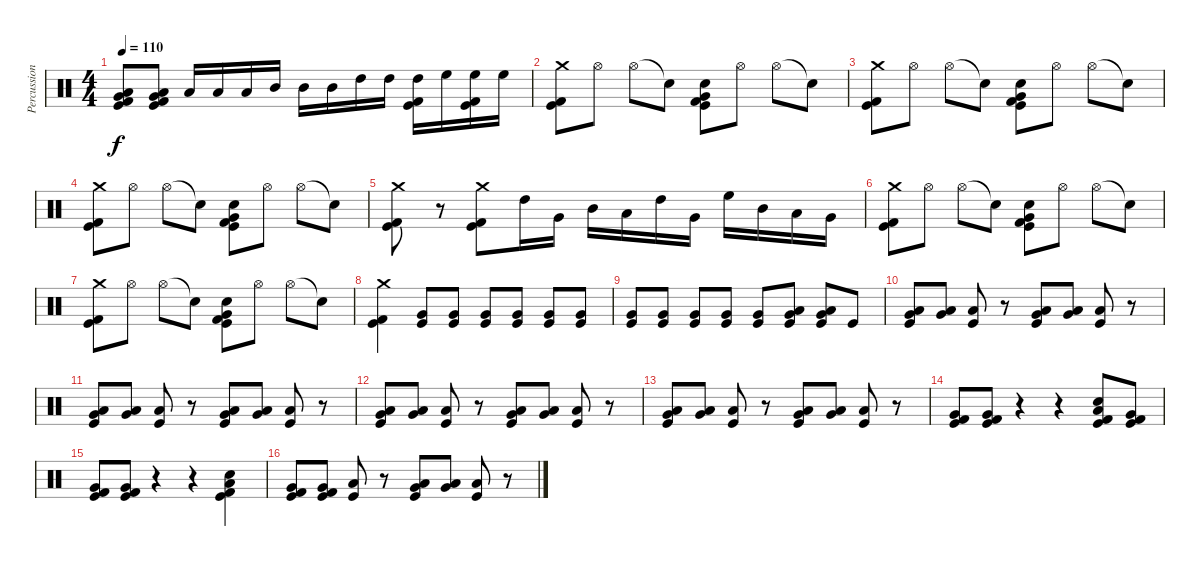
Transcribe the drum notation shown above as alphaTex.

\track ("Percussion" "Percussion") {instrument percussion}
\staff {score}
\articulation defaults
\ts (4 4)
\tempo 110
\clef neutral
\ks c
("Low Tom (hit)" "Very Low Tom (hit)" "Kick (hit) 2" "Kick (hit)").8{dy f} ("Low Tom (hit)" "Very Low Tom (hit)" "Kick (hit) 2" "Kick (hit)").8 "Low Tom (hit)".16 "Low Tom (hit)".16 "Low Tom (hit)".16 "Mid Tom (hit)".16 "Mid Tom (hit)".16 "Mid Tom (hit)".16 "High Tom (hit)".16 "High Tom (hit)".16 ("High Tom (hit)" "Kick (hit) 2" "Kick (hit)").16 "High Floor Tom (hit)".16 ("High Floor Tom (hit)" "Kick (hit) 2" "Kick (hit)").16 "High Floor Tom (hit)".16 |
("Crash medium (hit)" "Kick (hit) 2" "Kick (hit)").8 "Hi-Hat (open)".8 "Hi-Hat (open)".8 "Snare (hit)"{t}.8 ("Very Low Tom (hit)" "Snare (hit) 2" "Kick (hit) 2" "Kick (hit)").8 "Hi-Hat (open)".8 "Hi-Hat (open)".8 "Snare (hit)"{t}.8 |
("Crash medium (hit)" "Kick (hit) 2" "Kick (hit)").8 "Hi-Hat (open)".8 "Hi-Hat (open)".8 "Snare (hit)"{t}.8 ("Very Low Tom (hit)" "Snare (hit) 2" "Kick (hit) 2" "Kick (hit)").8 "Hi-Hat (open)".8 "Hi-Hat (open)".8 "Snare (hit)"{t}.8 |
("Crash medium (hit)" "Kick (hit) 2" "Kick (hit)").8 "Hi-Hat (open)".8 "Hi-Hat (open)".8 "Snare (hit)"{t}.8 ("Very Low Tom (hit)" "Snare (hit) 2" "Kick (hit) 2" "Kick (hit)").8 "Hi-Hat (open)".8 "Hi-Hat (open)".8 "Snare (hit)"{t}.8 |
("Crash medium (hit)" "Kick (hit) 2" "Kick (hit)").8 r.8 ("Crash medium (hit)" "Kick (hit) 2" "Kick (hit)").8 "High Tom (hit)".16 "Very Low Tom (hit)".16 "Mid Tom (hit)".16 "Low Tom (hit)".16 "High Tom (hit)".16 "Very Low Tom (hit)".16 "High Floor Tom (hit)".16 "Mid Tom (hit)".16 "Low Tom (hit)".16 "Very Low Tom (hit)".16 |
("Crash medium (hit)" "Kick (hit) 2" "Kick (hit)").8 "Hi-Hat (open)".8 "Hi-Hat (open)".8 "Snare (hit)"{t}.8 ("Very Low Tom (hit)" "Snare (hit) 2" "Kick (hit) 2" "Kick (hit)").8 "Hi-Hat (open)".8 "Hi-Hat (open)".8 "Snare (hit)"{t}.8 |
("Crash medium (hit)" "Kick (hit) 2" "Kick (hit)").8 "Hi-Hat (open)".8 "Hi-Hat (open)".8 "Snare (hit)"{t}.8 ("Very Low Tom (hit)" "Snare (hit) 2" "Kick (hit) 2" "Kick (hit)").8 "Hi-Hat (open)".8 "Hi-Hat (open)".8 "Snare (hit)"{t}.8 |
("Crash medium (hit)" "Kick (hit) 2" "Kick (hit)").4 ("Very Low Tom (hit)" "Kick (hit)").8 ("Very Low Tom (hit)" "Kick (hit)").8 ("Very Low Tom (hit)" "Kick (hit)").8 ("Very Low Tom (hit)" "Kick (hit)").8 ("Very Low Tom (hit)" "Kick (hit)").8 ("Very Low Tom (hit)" "Kick (hit)").8 |
("Very Low Tom (hit)" "Kick (hit)").8 ("Very Low Tom (hit)" "Kick (hit)").8 ("Very Low Tom (hit)" "Kick (hit)").8 ("Very Low Tom (hit)" "Kick (hit)").8 ("Very Low Tom (hit)" "Kick (hit)").8 ("Low Tom (hit)" "Very Low Tom (hit)" "Kick (hit)").8 ("Low Tom (hit)" "Very Low Tom (hit)" "Kick (hit)").8 "Kick (hit)".8 |
("Low Tom (hit)" "Very Low Tom (hit)" "Kick (hit)").8 ("Low Tom (hit)" "Very Low Tom (hit)").8 ("Low Floor Tom (hit)" "Kick (hit)").8 r.8 ("Low Tom (hit)" "Very Low Tom (hit)" "Kick (hit)").8 ("Low Tom (hit)" "Very Low Tom (hit)").8 ("Low Floor Tom (hit)" "Kick (hit)").8 r.8 |
("Low Tom (hit)" "Very Low Tom (hit)" "Kick (hit)").8 ("Low Tom (hit)" "Very Low Tom (hit)").8 ("Low Floor Tom (hit)" "Kick (hit)").8 r.8 ("Low Tom (hit)" "Very Low Tom (hit)" "Kick (hit)").8 ("Low Tom (hit)" "Very Low Tom (hit)").8 ("Low Floor Tom (hit)" "Kick (hit)").8 r.8 |
("Low Tom (hit)" "Very Low Tom (hit)" "Kick (hit)").8 ("Low Tom (hit)" "Very Low Tom (hit)").8 ("Low Floor Tom (hit)" "Kick (hit)").8 r.8 ("Low Tom (hit)" "Very Low Tom (hit)" "Kick (hit)").8 ("Low Tom (hit)" "Very Low Tom (hit)").8 ("Low Floor Tom (hit)" "Kick (hit)").8 r.8 |
("Low Tom (hit)" "Very Low Tom (hit)" "Kick (hit)").8 ("Low Tom (hit)" "Very Low Tom (hit)").8 ("Low Floor Tom (hit)" "Kick (hit)").8 r.8 ("Low Tom (hit)" "Very Low Tom (hit)" "Kick (hit)").8 ("Low Tom (hit)" "Very Low Tom (hit)").8 ("Low Floor Tom (hit)" "Kick (hit)").8 r.8 |
("Very Low Tom (hit)" "Kick (hit) 2" "Kick (hit)").8 ("Very Low Tom (hit)" "Kick (hit) 2" "Kick (hit)").8 r.4 r.4 ("Electric Snare (hit)" "Low Tom (hit)" "Kick (hit) 2" "Kick (hit)").8 ("Very Low Tom (hit)" "Kick (hit) 2" "Kick (hit)").8 |
("Very Low Tom (hit)" "Kick (hit) 2" "Kick (hit)").8 ("Very Low Tom (hit)" "Kick (hit) 2" "Kick (hit)").8 r.4 r.4 ("Electric Snare (hit)" "Low Tom (hit)" "Kick (hit) 2" "Kick (hit)").4 |
("Very Low Tom (hit)" "Kick (hit) 2" "Kick (hit)").8 ("Very Low Tom (hit)" "Kick (hit) 2" "Kick (hit)").8 ("Low Floor Tom (hit)" "Kick (hit)").8 r.8 ("Low Tom (hit)" "Very Low Tom (hit)" "Kick (hit)").8 ("Low Tom (hit)" "Very Low Tom (hit)").8 ("Low Floor Tom (hit)" "Kick (hit)").8 r.8
